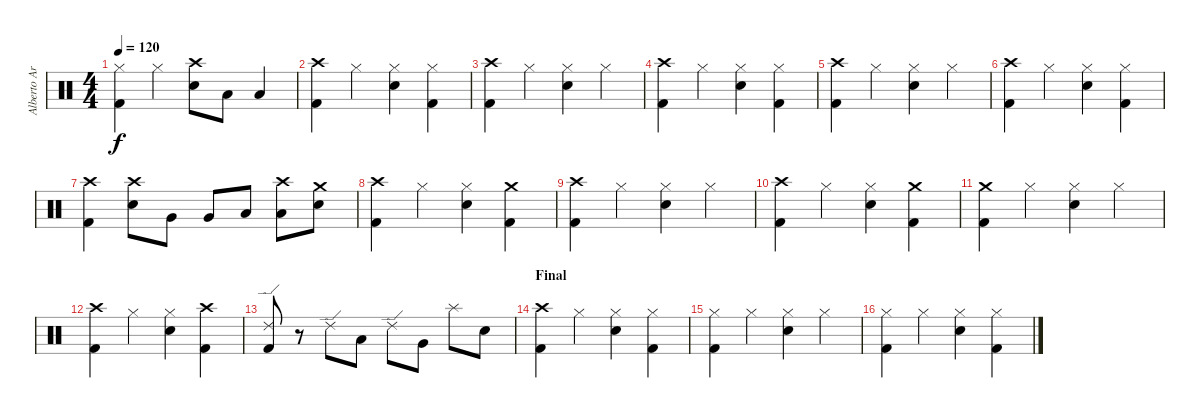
\track ("Alberto Ardines (Batería)" "Alberto Ar") {instrument percussion}
\staff {score}
\articulation defaults
\ts (4 4)
\tempo 120
\clef neutral
\ks c
("Hi-Hat (closed)" "Kick (hit) 2").4{dy f} "Hi-Hat (closed)".4 ("Crash high (hit)" "Electric Snare (hit)").8 "Low Floor Tom (hit)".8 "Low Floor Tom (hit)".4 |
("Crash high (hit)" "Kick (hit) 2").4 "Hi-Hat (closed)".4 ("Hi-Hat (closed)" "Electric Snare (hit)").4 ("Hi-Hat (closed)" "Kick (hit) 2").4 |
("Crash high (hit)" "Kick (hit) 2").4 "Hi-Hat (closed)".4 ("Hi-Hat (closed)" "Electric Snare (hit)").4 "Hi-Hat (closed)".4 |
("Crash high (hit)" "Kick (hit) 2").4 "Hi-Hat (closed)".4 ("Hi-Hat (closed)" "Electric Snare (hit)").4 ("Hi-Hat (closed)" "Kick (hit) 2").4 |
("Crash high (hit)" "Kick (hit) 2").4 "Hi-Hat (closed)".4 ("Hi-Hat (closed)" "Electric Snare (hit)").4 "Hi-Hat (closed)".4 |
("Crash high (hit)" "Kick (hit) 2").4 "Hi-Hat (closed)".4 ("Hi-Hat (closed)" "Electric Snare (hit)").4 ("Hi-Hat (closed)" "Kick (hit) 2").4 |
("Crash high (hit)" "Kick (hit) 2").4 ("Crash high (hit)" "Electric Snare (hit)").8 "Very Low Tom (hit)".8 "Very Low Tom (hit)".8 "Low Floor Tom (hit)".8 ("Low Floor Tom (hit)" "Crash high (hit)").8 ("Crash medium (hit)" "Electric Snare (hit)").8 |
("Crash high (hit)" "Kick (hit) 2").4 "Hi-Hat (closed)".4 ("Hi-Hat (closed)" "Electric Snare (hit)").4 ("Crash medium (hit)" "Kick (hit) 2").4 |
("Crash high (hit)" "Kick (hit) 2").4 "Hi-Hat (closed)".4 ("Hi-Hat (closed)" "Electric Snare (hit)").4 "Hi-Hat (closed)".4 |
("Crash high (hit)" "Kick (hit) 2").4 "Hi-Hat (closed)".4 ("Hi-Hat (closed)" "Electric Snare (hit)").4 ("Crash medium (hit)" "Kick (hit) 2").4 |
("Crash medium (hit)" "Kick (hit) 2").4 "Hi-Hat (closed)".4 ("Hi-Hat (closed)" "Electric Snare (hit)").4 "Hi-Hat (closed)".4 |
("Crash high (hit)" "Kick (hit) 2").4 "Hi-Hat (closed)".4 ("Hi-Hat (closed)" "Electric Snare (hit)").4 ("Crash high (hit)" "Kick (hit) 2").4 |
("Ride (edge) 2" "Kick (hit) 2").8 r.8 "Ride (edge) 2".8 "Low Tom (hit)".8 "Ride (edge) 2".8 "Very Low Tom (hit)".8 "Splash (hit)".8 "Electric Snare (hit)".8 |
\section ("" "Final")
("Crash high (hit)" "Kick (hit) 2").4 "Hi-Hat (closed)".4 ("Hi-Hat (closed)" "Electric Snare (hit)").4 ("Hi-Hat (closed)" "Kick (hit) 2").4 |
("Hi-Hat (closed)" "Kick (hit) 2").4 "Hi-Hat (closed)".4 ("Hi-Hat (closed)" "Electric Snare (hit)").4 "Hi-Hat (closed)".4 |
("Hi-Hat (closed)" "Kick (hit) 2").4 "Hi-Hat (closed)".4 ("Hi-Hat (closed)" "Electric Snare (hit)").4 ("Hi-Hat (closed)" "Kick (hit) 2").4
